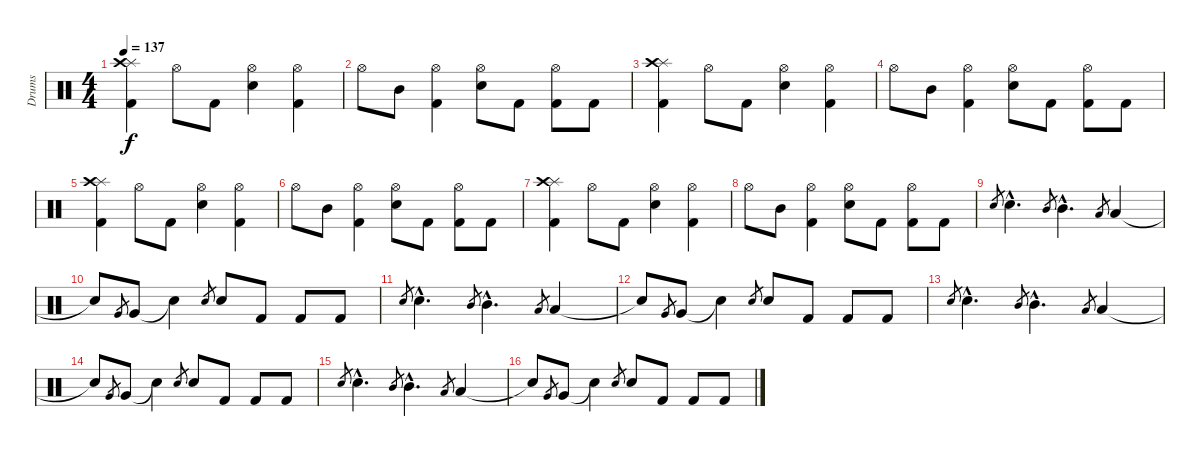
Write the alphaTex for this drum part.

\track ("Drums" "Drums") {instrument percussion}
\staff {score}
\articulation defaults
\ts (4 4)
\tempo 137
\clef neutral
\ks c
("Splash (hit)" "Crash high (hit)" "Kick (hit) 2").4{dy f} "Hi-Hat (open)".8 "Kick (hit) 2".8 ("Hi-Hat (open)" "Electric Snare (hit)").4 ("Hi-Hat (open)" "Kick (hit) 2").4 |
"Hi-Hat (open)".8 "Mid Tom (hit)".8 ("Hi-Hat (open)" "Kick (hit) 2").4 ("Hi-Hat (open)" "Electric Snare (hit)").8 "Kick (hit) 2".8 ("Hi-Hat (open)" "Kick (hit) 2").8 "Kick (hit) 2".8 |
("Splash (hit)" "Crash high (hit)" "Kick (hit) 2").4 "Hi-Hat (open)".8 "Kick (hit) 2".8 ("Hi-Hat (open)" "Electric Snare (hit)").4 ("Hi-Hat (open)" "Kick (hit) 2").4 |
"Hi-Hat (open)".8 "Mid Tom (hit)".8 ("Hi-Hat (open)" "Kick (hit) 2").4 ("Hi-Hat (open)" "Electric Snare (hit)").8 "Kick (hit) 2".8 ("Hi-Hat (open)" "Kick (hit) 2").8 "Kick (hit) 2".8 |
("Splash (hit)" "Crash high (hit)" "Kick (hit) 2").4 "Hi-Hat (open)".8 "Kick (hit) 2".8 ("Hi-Hat (open)" "Electric Snare (hit)").4 ("Hi-Hat (open)" "Kick (hit) 2").4 |
"Hi-Hat (open)".8 "Mid Tom (hit)".8 ("Hi-Hat (open)" "Kick (hit) 2").4 ("Hi-Hat (open)" "Electric Snare (hit)").8 "Kick (hit) 2".8 ("Hi-Hat (open)" "Kick (hit) 2").8 "Kick (hit) 2".8 |
("Splash (hit)" "Crash high (hit)" "Kick (hit) 2").4 "Hi-Hat (open)".8 "Kick (hit) 2".8 ("Hi-Hat (open)" "Electric Snare (hit)").4 ("Hi-Hat (open)" "Kick (hit) 2").4 |
"Hi-Hat (open)".8 "Mid Tom (hit)".8 ("Hi-Hat (open)" "Kick (hit) 2").4 ("Hi-Hat (open)" "Electric Snare (hit)").8 "Kick (hit) 2".8 ("Hi-Hat (open)" "Kick (hit) 2").8 "Kick (hit) 2".8 |
"Electric Snare (hit)".8{gr} "Electric Snare (hit)"{hac}.4{d} "Mid Tom (hit)".8{gr} "Mid Tom (hit)"{hac}.4{d} "Low Tom (hit)".8{gr} "Low Tom (hit)".4 |
"Snare (hit)"{t}.8 "Very Low Tom (hit)".8{gr} "Very Low Tom (hit)".8 "Snare (hit)"{t}.4 "Electric Snare (hit)".8{gr} "Electric Snare (hit)".8 "Kick (hit) 2".8 "Kick (hit) 2".8 "Kick (hit) 2".8 |
"Electric Snare (hit)".8{gr} "Electric Snare (hit)"{hac}.4{d} "Mid Tom (hit)".8{gr} "Mid Tom (hit)"{hac}.4{d} "Low Tom (hit)".8{gr} "Low Tom (hit)".4 |
"Snare (hit)"{t}.8 "Very Low Tom (hit)".8{gr} "Very Low Tom (hit)".8 "Snare (hit)"{t}.4 "Electric Snare (hit)".8{gr} "Electric Snare (hit)".8 "Kick (hit) 2".8 "Kick (hit) 2".8 "Kick (hit) 2".8 |
"Electric Snare (hit)".8{gr} "Electric Snare (hit)"{hac}.4{d} "Mid Tom (hit)".8{gr} "Mid Tom (hit)"{hac}.4{d} "Low Tom (hit)".8{gr} "Low Tom (hit)".4 |
"Snare (hit)"{t}.8 "Very Low Tom (hit)".8{gr} "Very Low Tom (hit)".8 "Snare (hit)"{t}.4 "Electric Snare (hit)".8{gr} "Electric Snare (hit)".8 "Kick (hit) 2".8 "Kick (hit) 2".8 "Kick (hit) 2".8 |
"Electric Snare (hit)".8{gr} "Electric Snare (hit)"{hac}.4{d} "Mid Tom (hit)".8{gr} "Mid Tom (hit)"{hac}.4{d} "Low Tom (hit)".8{gr} "Low Tom (hit)".4 |
"Snare (hit)"{t}.8 "Very Low Tom (hit)".8{gr} "Very Low Tom (hit)".8 "Snare (hit)"{t}.4 "Electric Snare (hit)".8{gr} "Electric Snare (hit)".8 "Kick (hit) 2".8 "Kick (hit) 2".8 "Kick (hit) 2".8
